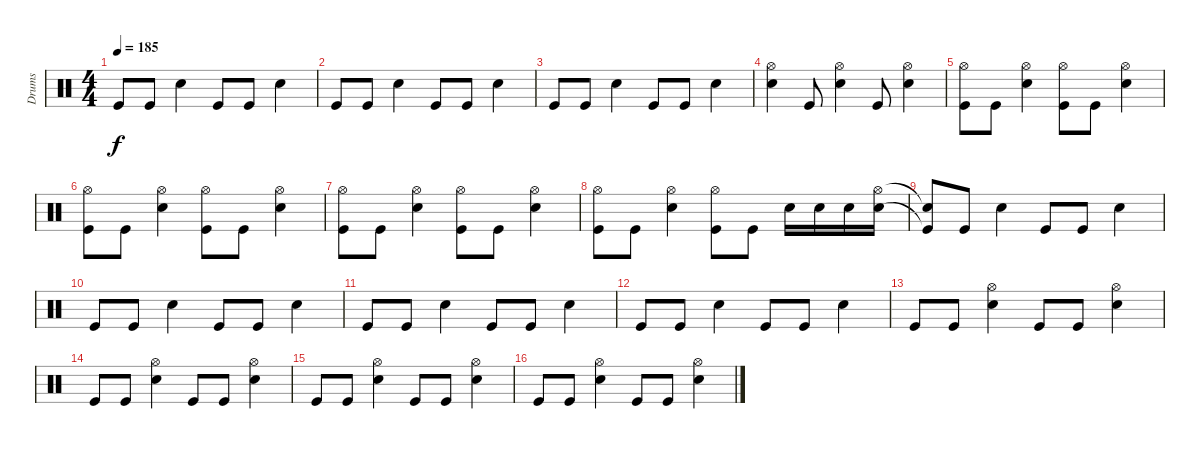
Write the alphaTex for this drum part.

\track ("Drums" "Drums") {instrument percussion}
\staff {score}
\articulation defaults
\ts (4 4)
\tempo 185
\clef neutral
\ks c "Kick (hit)".8{dy f} "Kick (hit)".8 "Electric Snare (hit)".4 "Kick (hit)".8 "Kick (hit)".8 "Electric Snare (hit)".4
|
"Kick (hit)".8 "Kick (hit)".8 "Electric Snare (hit)".4 "Kick (hit)".8 "Kick (hit)".8 "Electric Snare (hit)".4 |
"Kick (hit)".8 "Kick (hit)".8 "Electric Snare (hit)".4 "Kick (hit)".8 "Kick (hit)".8 "Electric Snare (hit)".4 |
("Electric Snare (hit)" "Hi-Hat (open)").4 "Kick (hit)".8 ("Electric Snare (hit)" "Hi-Hat (open)").4 "Kick (hit)".8 ("Electric Snare (hit)" "Hi-Hat (open)").4 |
("Kick (hit)" "Hi-Hat (open)").8 "Kick (hit)".8 ("Electric Snare (hit)" "Hi-Hat (open)").4 ("Kick (hit)" "Hi-Hat (open)").8 "Kick (hit)".8 ("Electric Snare (hit)" "Hi-Hat (open)").4 |
("Kick (hit)" "Hi-Hat (open)").8 "Kick (hit)".8 ("Electric Snare (hit)" "Hi-Hat (open)").4 ("Kick (hit)" "Hi-Hat (open)").8 "Kick (hit)".8 ("Electric Snare (hit)" "Hi-Hat (open)").4 |
("Kick (hit)" "Hi-Hat (open)").8 "Kick (hit)".8 ("Electric Snare (hit)" "Hi-Hat (open)").4 ("Kick (hit)" "Hi-Hat (open)").8 "Kick (hit)".8 ("Electric Snare (hit)" "Hi-Hat (open)").4 |
("Kick (hit)" "Hi-Hat (open)").8 "Kick (hit)".8 ("Electric Snare (hit)" "Hi-Hat (open)").4 ("Kick (hit)" "Hi-Hat (open)").8 "Kick (hit)".8 "Electric Snare (hit)".16 "Electric Snare (hit)".16 "Electric Snare (hit)".16 ("Electric Snare (hit)" "Hi-Hat (open)").16 |
("Kick (hit)"{t} "Snare (hit)"{t}).8 "Kick (hit)".8 "Electric Snare (hit)".4 "Kick (hit)".8 "Kick (hit)".8 "Electric Snare (hit)".4 |
"Kick (hit)".8 "Kick (hit)".8 "Electric Snare (hit)".4 "Kick (hit)".8 "Kick (hit)".8 "Electric Snare (hit)".4 |
"Kick (hit)".8 "Kick (hit)".8 "Electric Snare (hit)".4 "Kick (hit)".8 "Kick (hit)".8 "Electric Snare (hit)".4 |
"Kick (hit)".8 "Kick (hit)".8 "Electric Snare (hit)".4 "Kick (hit)".8 "Kick (hit)".8 "Electric Snare (hit)".4 |
"Kick (hit)".8 "Kick (hit)".8 ("Electric Snare (hit)" "Hi-Hat (open)").4 "Kick (hit)".8 "Kick (hit)".8 ("Electric Snare (hit)" "Hi-Hat (open)").4 |
"Kick (hit)".8 "Kick (hit)".8 ("Electric Snare (hit)" "Hi-Hat (open)").4 "Kick (hit)".8 "Kick (hit)".8 ("Electric Snare (hit)" "Hi-Hat (open)").4 |
"Kick (hit)".8 "Kick (hit)".8 ("Electric Snare (hit)" "Hi-Hat (open)").4 "Kick (hit)".8 "Kick (hit)".8 ("Electric Snare (hit)" "Hi-Hat (open)").4 |
"Kick (hit)".8 "Kick (hit)".8 ("Electric Snare (hit)" "Hi-Hat (open)").4 "Kick (hit)".8 "Kick (hit)".8 ("Electric Snare (hit)" "Hi-Hat (open)").4
